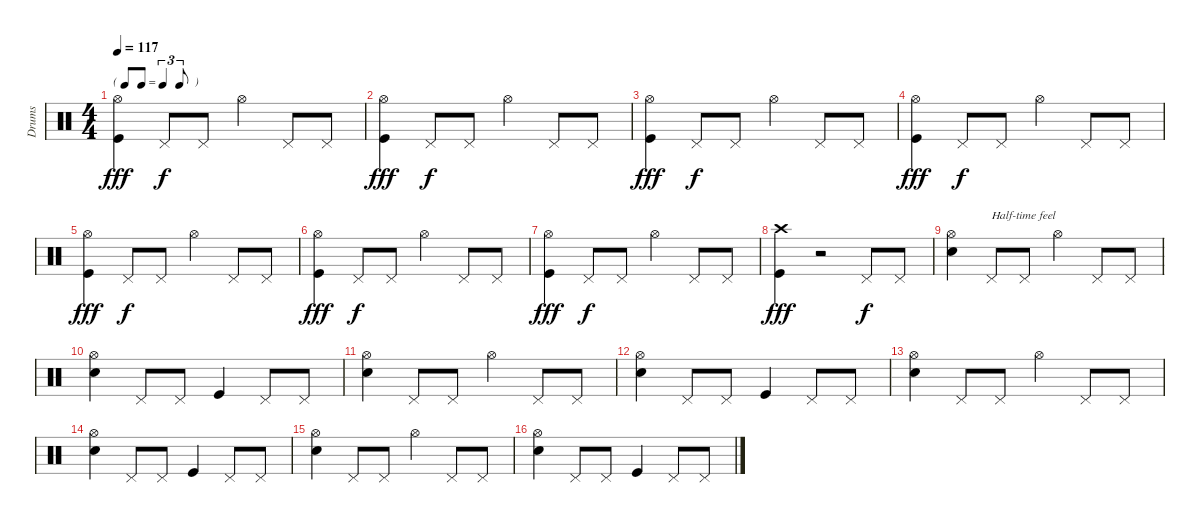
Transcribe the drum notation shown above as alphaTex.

\track ("Drums" "Drums") {instrument percussion}
\staff {score}
\articulation defaults
\ts (4 4)
\tf triplet8th
\tempo 117
\clef neutral
\ks c
("Hi-Hat (open)" "Kick (hit)").4{dy fff} "Pedal Hi-Hat (hit)".8{dy f} "Pedal Hi-Hat (hit)".8 "Hi-Hat (open)".4 "Pedal Hi-Hat (hit)".8 "Pedal Hi-Hat (hit)".8 |
("Hi-Hat (open)" "Kick (hit)").4{dy fff} "Pedal Hi-Hat (hit)".8{dy f} "Pedal Hi-Hat (hit)".8 "Hi-Hat (open)".4 "Pedal Hi-Hat (hit)".8 "Pedal Hi-Hat (hit)".8 |
("Hi-Hat (open)" "Kick (hit)").4{dy fff} "Pedal Hi-Hat (hit)".8{dy f} "Pedal Hi-Hat (hit)".8 "Hi-Hat (open)".4 "Pedal Hi-Hat (hit)".8 "Pedal Hi-Hat (hit)".8 |
("Hi-Hat (open)" "Kick (hit)").4{dy fff} "Pedal Hi-Hat (hit)".8{dy f} "Pedal Hi-Hat (hit)".8 "Hi-Hat (open)".4 "Pedal Hi-Hat (hit)".8 "Pedal Hi-Hat (hit)".8 |
("Hi-Hat (open)" "Kick (hit)").4{dy fff} "Pedal Hi-Hat (hit)".8{dy f} "Pedal Hi-Hat (hit)".8 "Hi-Hat (open)".4 "Pedal Hi-Hat (hit)".8 "Pedal Hi-Hat (hit)".8 |
("Hi-Hat (open)" "Kick (hit)").4{dy fff} "Pedal Hi-Hat (hit)".8{dy f} "Pedal Hi-Hat (hit)".8 "Hi-Hat (open)".4 "Pedal Hi-Hat (hit)".8 "Pedal Hi-Hat (hit)".8 |
("Hi-Hat (open)" "Kick (hit)").4{dy fff} "Pedal Hi-Hat (hit)".8{dy f} "Pedal Hi-Hat (hit)".8 "Hi-Hat (open)".4 "Pedal Hi-Hat (hit)".8 "Pedal Hi-Hat (hit)".8 |
("Crash high (hit)" "Kick (hit)").4{dy fff} r.2 "Pedal Hi-Hat (hit)".8{dy f} "Pedal Hi-Hat (hit)".8 |
("Hi-Hat (open)" "Snare (hit) 2").4 "Pedal Hi-Hat (hit)".8{txt "Half-time feel"} "Pedal Hi-Hat (hit)".8 "Hi-Hat (open)".4 "Pedal Hi-Hat (hit)".8 "Pedal Hi-Hat (hit)".8 |
("Hi-Hat (open)" "Snare (hit) 2").4 "Pedal Hi-Hat (hit)".8 "Pedal Hi-Hat (hit)".8 "Kick (hit)".4 "Pedal Hi-Hat (hit)".8 "Pedal Hi-Hat (hit)".8 |
("Hi-Hat (open)" "Snare (hit) 2").4 "Pedal Hi-Hat (hit)".8 "Pedal Hi-Hat (hit)".8 "Hi-Hat (open)".4 "Pedal Hi-Hat (hit)".8 "Pedal Hi-Hat (hit)".8 |
("Hi-Hat (open)" "Snare (hit) 2").4 "Pedal Hi-Hat (hit)".8 "Pedal Hi-Hat (hit)".8 "Kick (hit)".4 "Pedal Hi-Hat (hit)".8 "Pedal Hi-Hat (hit)".8 |
("Hi-Hat (open)" "Snare (hit) 2").4 "Pedal Hi-Hat (hit)".8 "Pedal Hi-Hat (hit)".8 "Hi-Hat (open)".4 "Pedal Hi-Hat (hit)".8 "Pedal Hi-Hat (hit)".8 |
("Hi-Hat (open)" "Snare (hit) 2").4 "Pedal Hi-Hat (hit)".8 "Pedal Hi-Hat (hit)".8 "Kick (hit)".4 "Pedal Hi-Hat (hit)".8 "Pedal Hi-Hat (hit)".8 |
("Hi-Hat (open)" "Snare (hit) 2").4 "Pedal Hi-Hat (hit)".8 "Pedal Hi-Hat (hit)".8 "Hi-Hat (open)".4 "Pedal Hi-Hat (hit)".8 "Pedal Hi-Hat (hit)".8 |
("Hi-Hat (open)" "Snare (hit) 2").4 "Pedal Hi-Hat (hit)".8 "Pedal Hi-Hat (hit)".8 "Kick (hit)".4 "Pedal Hi-Hat (hit)".8 "Pedal Hi-Hat (hit)".8
